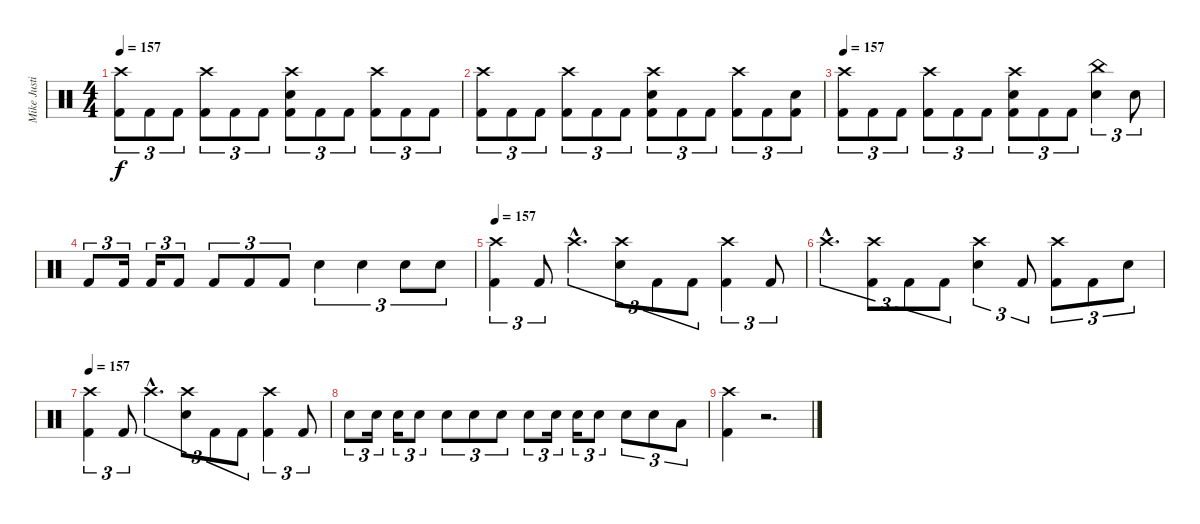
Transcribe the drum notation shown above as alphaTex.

\track ("Mike Justian (Drums)" "Mike Justi") {instrument percussion}
\staff {score}
\articulation defaults
\ts (4 4)
\tempo 157
\clef neutral
\ks c
("Crash high (hit)" "Kick (hit) 2").8{tu (3 2) dy f} "Kick (hit) 2".8{tu (3 2)} "Kick (hit) 2".8{tu (3 2)} ("Crash high (hit)" "Kick (hit) 2").8{tu (3 2)} "Kick (hit) 2".8{tu (3 2)} "Kick (hit) 2".8{tu (3 2)} ("Crash high (hit)" "Snare (hit) 2" "Kick (hit) 2").8{tu (3 2)} "Kick (hit) 2".8{tu (3 2)} "Kick (hit) 2".8{tu (3 2)} ("Crash high (hit)" "Kick (hit) 2").8{tu (3 2)} "Kick (hit) 2".8{tu (3 2)} "Kick (hit) 2".8{tu (3 2)} |
("Crash high (hit)" "Kick (hit) 2").8{tu (3 2)} "Kick (hit) 2".8{tu (3 2)} "Kick (hit) 2".8{tu (3 2)} ("Crash high (hit)" "Kick (hit) 2").8{tu (3 2)} "Kick (hit) 2".8{tu (3 2)} "Kick (hit) 2".8{tu (3 2)} ("Crash high (hit)" "Snare (hit) 2" "Kick (hit) 2").8{tu (3 2)} "Kick (hit) 2".8{tu (3 2)} "Kick (hit) 2".8{tu (3 2)} ("Crash high (hit)" "Kick (hit) 2").8{tu (3 2)} "Kick (hit) 2".8{tu (3 2)} ("Snare (hit) 2" "Kick (hit) 2").8{tu (3 2)} |
\tempo 157
("Crash high (hit)" "Kick (hit) 2").8{tu (3 2)} "Kick (hit) 2".8{tu (3 2)} "Kick (hit) 2".8{tu (3 2)} ("Crash high (hit)" "Kick (hit) 2").8{tu (3 2)} "Kick (hit) 2".8{tu (3 2)} "Kick (hit) 2".8{tu (3 2)} ("Crash high (hit)" "Snare (hit) 2" "Kick (hit) 2").8{tu (3 2)} "Kick (hit) 2".8{tu (3 2)} "Kick (hit) 2".8{tu (3 2)} ("China (hit)" "Snare (hit) 2").4{tu (3 2)} "Snare (hit) 2".8{tu (3 2)} |
"Kick (hit) 2".8{tu (3 2)} "Kick (hit) 2".16{tu (3 2)} "Kick (hit) 2".16{tu (3 2)} "Kick (hit) 2".8{tu (3 2)} "Kick (hit) 2".8{tu (3 2)} "Kick (hit) 2".8{tu (3 2)} "Kick (hit) 2".8{tu (3 2)} "Snare (hit) 2".4{tu (3 2)} "Snare (hit) 2".4{tu (3 2)} "Snare (hit) 2".8{tu (3 2)} "Snare (hit) 2".8{tu (3 2)} |
\tempo 157
("Crash high (hit)" "Kick (hit) 2").4{tu (3 2)} "Kick (hit) 2".8{tu (3 2)} "Crash high (hit)"{hac}.4{d tu (3 2)} ("Crash high (hit)" "Snare (hit) 2").8{tu (3 2)} "Kick (hit) 2".8{tu (3 2)} "Kick (hit) 2".8{tu (3 2)} ("Crash high (hit)" "Kick (hit) 2").4{tu (3 2)} "Kick (hit) 2".8{tu (3 2)} |
"Crash high (hit)"{hac}.4{d tu (3 2)} ("Crash high (hit)" "Kick (hit) 2").8{tu (3 2)} "Kick (hit) 2".8{tu (3 2)} "Kick (hit) 2".8{tu (3 2)} ("Crash high (hit)" "Snare (hit) 2").4{tu (3 2)} "Kick (hit) 2".8{tu (3 2)} ("Crash high (hit)" "Kick (hit) 2").8{tu (3 2)} "Kick (hit) 2".8{tu (3 2)} "Snare (hit) 2".8{tu (3 2)} |
\tempo 157
("Crash high (hit)" "Kick (hit) 2").4{tu (3 2)} "Kick (hit) 2".8{tu (3 2)} "Crash high (hit)"{hac}.4{d tu (3 2)} ("Crash high (hit)" "Snare (hit) 2").8{tu (3 2)} "Kick (hit) 2".8{tu (3 2)} "Kick (hit) 2".8{tu (3 2)} ("Crash high (hit)" "Kick (hit) 2").4{tu (3 2)} "Kick (hit) 2".8{tu (3 2)} |
"Snare (hit) 2".8{tu (3 2)} "Snare (hit) 2".16{tu (3 2)} "Snare (hit) 2".16{tu (3 2)} "Snare (hit) 2".8{tu (3 2)} "Snare (hit) 2".8{tu (3 2)} "Snare (hit) 2".8{tu (3 2)} "Snare (hit) 2".8{tu (3 2)} "Snare (hit) 2".8{tu (3 2)} "Snare (hit) 2".16{tu (3 2)} "Snare (hit) 2".16{tu (3 2)} "Snare (hit) 2".8{tu (3 2)} "Snare (hit) 2".8{tu (3 2)} "Snare (hit) 2".8{tu (3 2)} "Low Tom (hit)".8{tu (3 2)} |
("Crash high (hit)" "Kick (hit) 2").4 r.2{d volume 0}
